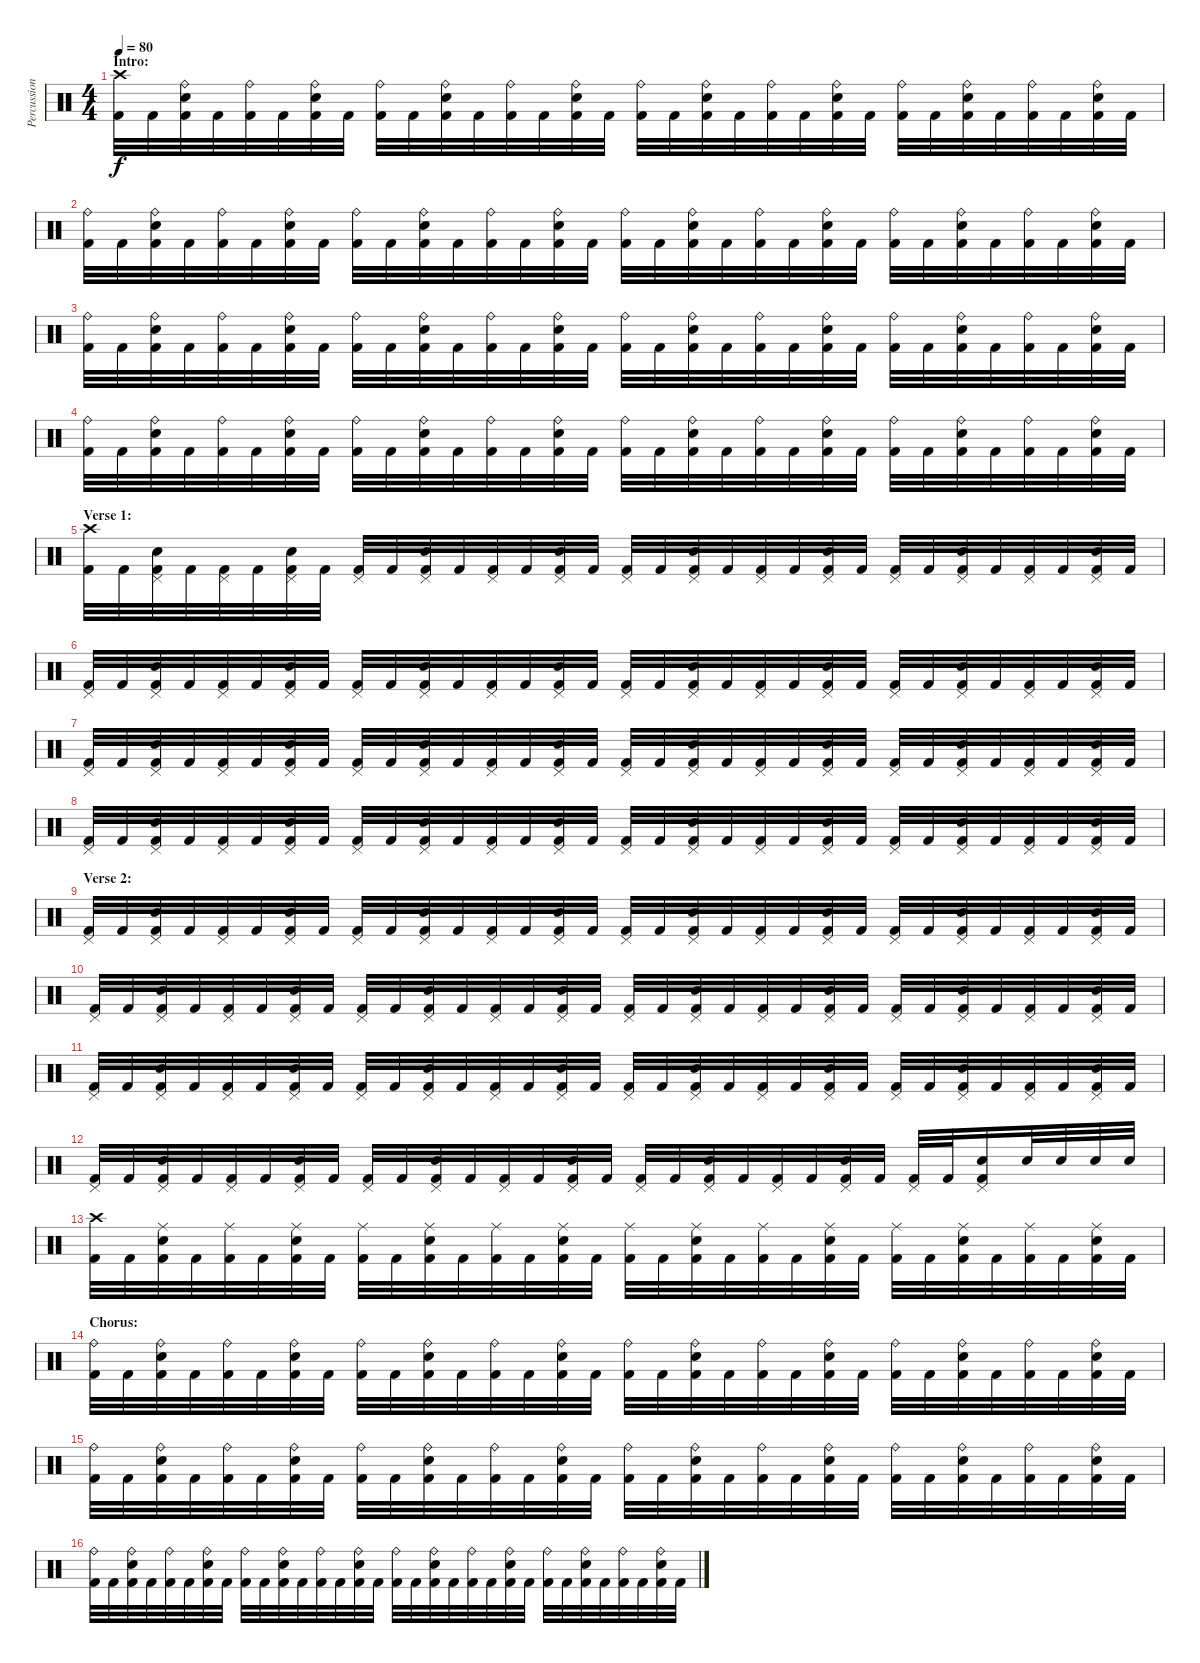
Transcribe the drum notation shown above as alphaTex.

\track ("Percussion" "Percussion") {instrument percussion}
\staff {score}
\articulation defaults
\ts (4 4)
\section ("" "Intro:")
\tempo 80
\clef neutral
\ks c
("Crash high (hit)" "Kick (hit) 2").32{dy f} "Kick (hit) 2".32 ("Ride (bell)" "Electric Snare (hit)" "Kick (hit) 2").32 "Kick (hit) 2".32 ("Ride (bell)" "Kick (hit) 2").32 "Kick (hit) 2".32 ("Ride (bell)" "Electric Snare (hit)" "Kick (hit) 2").32 "Kick (hit) 2".32 ("Ride (bell)" "Kick (hit) 2").32 "Kick (hit) 2".32 ("Ride (bell)" "Electric Snare (hit)" "Kick (hit) 2").32 "Kick (hit) 2".32 ("Ride (bell)" "Kick (hit) 2").32 "Kick (hit) 2".32 ("Ride (bell)" "Electric Snare (hit)" "Kick (hit) 2").32 "Kick (hit) 2".32 ("Ride (bell)" "Kick (hit) 2").32 "Kick (hit) 2".32 ("Ride (bell)" "Electric Snare (hit)" "Kick (hit) 2").32 "Kick (hit) 2".32 ("Ride (bell)" "Kick (hit) 2").32 "Kick (hit) 2".32 ("Ride (bell)" "Electric Snare (hit)" "Kick (hit) 2").32 "Kick (hit) 2".32 ("Ride (bell)" "Kick (hit) 2").32 "Kick (hit) 2".32 ("Ride (bell)" "Electric Snare (hit)" "Kick (hit) 2").32 "Kick (hit) 2".32 ("Ride (bell)" "Kick (hit) 2").32 "Kick (hit) 2".32 ("Ride (bell)" "Electric Snare (hit)" "Kick (hit) 2").32 "Kick (hit) 2".32 |
("Ride (bell)" "Kick (hit) 2").32 "Kick (hit) 2".32 ("Ride (bell)" "Electric Snare (hit)" "Kick (hit) 2").32 "Kick (hit) 2".32 ("Ride (bell)" "Kick (hit) 2").32 "Kick (hit) 2".32 ("Ride (bell)" "Electric Snare (hit)" "Kick (hit) 2").32 "Kick (hit) 2".32 ("Ride (bell)" "Kick (hit) 2").32 "Kick (hit) 2".32 ("Ride (bell)" "Electric Snare (hit)" "Kick (hit) 2").32 "Kick (hit) 2".32 ("Ride (bell)" "Kick (hit) 2").32 "Kick (hit) 2".32 ("Ride (bell)" "Electric Snare (hit)" "Kick (hit) 2").32 "Kick (hit) 2".32 ("Ride (bell)" "Kick (hit) 2").32 "Kick (hit) 2".32 ("Ride (bell)" "Electric Snare (hit)" "Kick (hit) 2").32 "Kick (hit) 2".32 ("Ride (bell)" "Kick (hit) 2").32 "Kick (hit) 2".32 ("Ride (bell)" "Electric Snare (hit)" "Kick (hit) 2").32 "Kick (hit) 2".32 ("Ride (bell)" "Kick (hit) 2").32 "Kick (hit) 2".32 ("Ride (bell)" "Electric Snare (hit)" "Kick (hit) 2").32 "Kick (hit) 2".32 ("Ride (bell)" "Kick (hit) 2").32 "Kick (hit) 2".32 ("Ride (bell)" "Electric Snare (hit)" "Kick (hit) 2").32 "Kick (hit) 2".32 |
("Ride (bell)" "Kick (hit) 2").32 "Kick (hit) 2".32 ("Ride (bell)" "Electric Snare (hit)" "Kick (hit) 2").32 "Kick (hit) 2".32 ("Ride (bell)" "Kick (hit) 2").32 "Kick (hit) 2".32 ("Ride (bell)" "Electric Snare (hit)" "Kick (hit) 2").32 "Kick (hit) 2".32 ("Ride (bell)" "Kick (hit) 2").32 "Kick (hit) 2".32 ("Ride (bell)" "Electric Snare (hit)" "Kick (hit) 2").32 "Kick (hit) 2".32 ("Ride (bell)" "Kick (hit) 2").32 "Kick (hit) 2".32 ("Ride (bell)" "Electric Snare (hit)" "Kick (hit) 2").32 "Kick (hit) 2".32 ("Ride (bell)" "Kick (hit) 2").32 "Kick (hit) 2".32 ("Ride (bell)" "Electric Snare (hit)" "Kick (hit) 2").32 "Kick (hit) 2".32 ("Ride (bell)" "Kick (hit) 2").32 "Kick (hit) 2".32 ("Ride (bell)" "Electric Snare (hit)" "Kick (hit) 2").32 "Kick (hit) 2".32 ("Ride (bell)" "Kick (hit) 2").32 "Kick (hit) 2".32 ("Ride (bell)" "Electric Snare (hit)" "Kick (hit) 2").32 "Kick (hit) 2".32 ("Ride (bell)" "Kick (hit) 2").32 "Kick (hit) 2".32 ("Ride (bell)" "Electric Snare (hit)" "Kick (hit) 2").32 "Kick (hit) 2".32 |
("Ride (bell)" "Kick (hit) 2").32 "Kick (hit) 2".32 ("Ride (bell)" "Electric Snare (hit)" "Kick (hit) 2").32 "Kick (hit) 2".32 ("Ride (bell)" "Kick (hit) 2").32 "Kick (hit) 2".32 ("Ride (bell)" "Electric Snare (hit)" "Kick (hit) 2").32 "Kick (hit) 2".32 ("Ride (bell)" "Kick (hit) 2").32 "Kick (hit) 2".32 ("Ride (bell)" "Electric Snare (hit)" "Kick (hit) 2").32 "Kick (hit) 2".32 ("Ride (bell)" "Kick (hit) 2").32 "Kick (hit) 2".32 ("Ride (bell)" "Electric Snare (hit)" "Kick (hit) 2").32 "Kick (hit) 2".32 ("Ride (bell)" "Kick (hit) 2").32 "Kick (hit) 2".32 ("Ride (bell)" "Electric Snare (hit)" "Kick (hit) 2").32 "Kick (hit) 2".32 ("Ride (bell)" "Kick (hit) 2").32 "Kick (hit) 2".32 ("Ride (bell)" "Electric Snare (hit)" "Kick (hit) 2").32 "Kick (hit) 2".32 ("Ride (bell)" "Kick (hit) 2").32 "Kick (hit) 2".32 ("Ride (bell)" "Electric Snare (hit)" "Kick (hit) 2").32 "Kick (hit) 2".32 ("Ride (bell)" "Kick (hit) 2").32 "Kick (hit) 2".32 ("Ride (bell)" "Electric Snare (hit)" "Kick (hit) 2").32 "Kick (hit) 2".32 |
\section ("" "Verse 1:")
("Crash high (hit)" "Kick (hit) 2").32 "Kick (hit) 2".32 ("Pedal Hi-Hat (hit)" "Electric Snare (hit)" "Kick (hit) 2").32 "Kick (hit) 2".32 ("Pedal Hi-Hat (hit)" "Kick (hit) 2").32 "Kick (hit) 2".32 ("Pedal Hi-Hat (hit)" "Electric Snare (hit)" "Kick (hit) 2").32 "Kick (hit) 2".32 ("Pedal Hi-Hat (hit)" "Kick (hit) 2").32 "Kick (hit) 2".32 ("Pedal Hi-Hat (hit)" "Electric Snare (hit)" "Kick (hit) 2").32 "Kick (hit) 2".32 ("Pedal Hi-Hat (hit)" "Kick (hit) 2").32 "Kick (hit) 2".32 ("Pedal Hi-Hat (hit)" "Electric Snare (hit)" "Kick (hit) 2").32 "Kick (hit) 2".32 ("Pedal Hi-Hat (hit)" "Kick (hit) 2").32 "Kick (hit) 2".32 ("Pedal Hi-Hat (hit)" "Electric Snare (hit)" "Kick (hit) 2").32 "Kick (hit) 2".32 ("Pedal Hi-Hat (hit)" "Kick (hit) 2").32 "Kick (hit) 2".32 ("Pedal Hi-Hat (hit)" "Electric Snare (hit)" "Kick (hit) 2").32 "Kick (hit) 2".32 ("Pedal Hi-Hat (hit)" "Kick (hit) 2").32 "Kick (hit) 2".32 ("Pedal Hi-Hat (hit)" "Electric Snare (hit)" "Kick (hit) 2").32 "Kick (hit) 2".32 ("Pedal Hi-Hat (hit)" "Kick (hit) 2").32 "Kick (hit) 2".32 ("Pedal Hi-Hat (hit)" "Electric Snare (hit)" "Kick (hit) 2").32 "Kick (hit) 2".32 |
("Pedal Hi-Hat (hit)" "Kick (hit) 2").32 "Kick (hit) 2".32 ("Pedal Hi-Hat (hit)" "Electric Snare (hit)" "Kick (hit) 2").32 "Kick (hit) 2".32 ("Pedal Hi-Hat (hit)" "Kick (hit) 2").32 "Kick (hit) 2".32 ("Pedal Hi-Hat (hit)" "Electric Snare (hit)" "Kick (hit) 2").32 "Kick (hit) 2".32 ("Pedal Hi-Hat (hit)" "Kick (hit) 2").32 "Kick (hit) 2".32 ("Pedal Hi-Hat (hit)" "Electric Snare (hit)" "Kick (hit) 2").32 "Kick (hit) 2".32 ("Pedal Hi-Hat (hit)" "Kick (hit) 2").32 "Kick (hit) 2".32 ("Pedal Hi-Hat (hit)" "Electric Snare (hit)" "Kick (hit) 2").32 "Kick (hit) 2".32 ("Pedal Hi-Hat (hit)" "Kick (hit) 2").32 "Kick (hit) 2".32 ("Pedal Hi-Hat (hit)" "Electric Snare (hit)" "Kick (hit) 2").32 "Kick (hit) 2".32 ("Pedal Hi-Hat (hit)" "Kick (hit) 2").32 "Kick (hit) 2".32 ("Pedal Hi-Hat (hit)" "Electric Snare (hit)" "Kick (hit) 2").32 "Kick (hit) 2".32 ("Pedal Hi-Hat (hit)" "Kick (hit) 2").32 "Kick (hit) 2".32 ("Pedal Hi-Hat (hit)" "Electric Snare (hit)" "Kick (hit) 2").32 "Kick (hit) 2".32 ("Pedal Hi-Hat (hit)" "Kick (hit) 2").32 "Kick (hit) 2".32 ("Pedal Hi-Hat (hit)" "Electric Snare (hit)" "Kick (hit) 2").32 "Kick (hit) 2".32 |
("Pedal Hi-Hat (hit)" "Kick (hit) 2").32 "Kick (hit) 2".32 ("Pedal Hi-Hat (hit)" "Electric Snare (hit)" "Kick (hit) 2").32 "Kick (hit) 2".32 ("Pedal Hi-Hat (hit)" "Kick (hit) 2").32 "Kick (hit) 2".32 ("Pedal Hi-Hat (hit)" "Electric Snare (hit)" "Kick (hit) 2").32 "Kick (hit) 2".32 ("Pedal Hi-Hat (hit)" "Kick (hit) 2").32 "Kick (hit) 2".32 ("Pedal Hi-Hat (hit)" "Electric Snare (hit)" "Kick (hit) 2").32 "Kick (hit) 2".32 ("Pedal Hi-Hat (hit)" "Kick (hit) 2").32 "Kick (hit) 2".32 ("Pedal Hi-Hat (hit)" "Electric Snare (hit)" "Kick (hit) 2").32 "Kick (hit) 2".32 ("Pedal Hi-Hat (hit)" "Kick (hit) 2").32 "Kick (hit) 2".32 ("Pedal Hi-Hat (hit)" "Electric Snare (hit)" "Kick (hit) 2").32 "Kick (hit) 2".32 ("Pedal Hi-Hat (hit)" "Kick (hit) 2").32 "Kick (hit) 2".32 ("Pedal Hi-Hat (hit)" "Electric Snare (hit)" "Kick (hit) 2").32 "Kick (hit) 2".32 ("Pedal Hi-Hat (hit)" "Kick (hit) 2").32 "Kick (hit) 2".32 ("Pedal Hi-Hat (hit)" "Electric Snare (hit)" "Kick (hit) 2").32 "Kick (hit) 2".32 ("Pedal Hi-Hat (hit)" "Kick (hit) 2").32 "Kick (hit) 2".32 ("Pedal Hi-Hat (hit)" "Electric Snare (hit)" "Kick (hit) 2").32 "Kick (hit) 2".32 |
("Pedal Hi-Hat (hit)" "Kick (hit) 2").32 "Kick (hit) 2".32 ("Pedal Hi-Hat (hit)" "Electric Snare (hit)" "Kick (hit) 2").32 "Kick (hit) 2".32 ("Pedal Hi-Hat (hit)" "Kick (hit) 2").32 "Kick (hit) 2".32 ("Pedal Hi-Hat (hit)" "Electric Snare (hit)" "Kick (hit) 2").32 "Kick (hit) 2".32 ("Pedal Hi-Hat (hit)" "Kick (hit) 2").32 "Kick (hit) 2".32 ("Pedal Hi-Hat (hit)" "Electric Snare (hit)" "Kick (hit) 2").32 "Kick (hit) 2".32 ("Pedal Hi-Hat (hit)" "Kick (hit) 2").32 "Kick (hit) 2".32 ("Pedal Hi-Hat (hit)" "Electric Snare (hit)" "Kick (hit) 2").32 "Kick (hit) 2".32 ("Pedal Hi-Hat (hit)" "Kick (hit) 2").32 "Kick (hit) 2".32 ("Pedal Hi-Hat (hit)" "Electric Snare (hit)" "Kick (hit) 2").32 "Kick (hit) 2".32 ("Pedal Hi-Hat (hit)" "Kick (hit) 2").32 "Kick (hit) 2".32 ("Pedal Hi-Hat (hit)" "Electric Snare (hit)" "Kick (hit) 2").32 "Kick (hit) 2".32 ("Pedal Hi-Hat (hit)" "Kick (hit) 2").32 "Kick (hit) 2".32 ("Pedal Hi-Hat (hit)" "Electric Snare (hit)" "Kick (hit) 2").32 "Kick (hit) 2".32 ("Pedal Hi-Hat (hit)" "Kick (hit) 2").32 "Kick (hit) 2".32 ("Pedal Hi-Hat (hit)" "Electric Snare (hit)" "Kick (hit) 2").32 "Kick (hit) 2".32 |
\section ("" "Verse 2:")
("Pedal Hi-Hat (hit)" "Kick (hit) 2").32 "Kick (hit) 2".32 ("Pedal Hi-Hat (hit)" "Electric Snare (hit)" "Kick (hit) 2").32 "Kick (hit) 2".32 ("Pedal Hi-Hat (hit)" "Kick (hit) 2").32 "Kick (hit) 2".32 ("Pedal Hi-Hat (hit)" "Electric Snare (hit)" "Kick (hit) 2").32 "Kick (hit) 2".32 ("Pedal Hi-Hat (hit)" "Kick (hit) 2").32 "Kick (hit) 2".32 ("Pedal Hi-Hat (hit)" "Electric Snare (hit)" "Kick (hit) 2").32 "Kick (hit) 2".32 ("Pedal Hi-Hat (hit)" "Kick (hit) 2").32 "Kick (hit) 2".32 ("Pedal Hi-Hat (hit)" "Electric Snare (hit)" "Kick (hit) 2").32 "Kick (hit) 2".32 ("Pedal Hi-Hat (hit)" "Kick (hit) 2").32 "Kick (hit) 2".32 ("Pedal Hi-Hat (hit)" "Electric Snare (hit)" "Kick (hit) 2").32 "Kick (hit) 2".32 ("Pedal Hi-Hat (hit)" "Kick (hit) 2").32 "Kick (hit) 2".32 ("Pedal Hi-Hat (hit)" "Electric Snare (hit)" "Kick (hit) 2").32 "Kick (hit) 2".32 ("Pedal Hi-Hat (hit)" "Kick (hit) 2").32 "Kick (hit) 2".32 ("Pedal Hi-Hat (hit)" "Electric Snare (hit)" "Kick (hit) 2").32 "Kick (hit) 2".32 ("Pedal Hi-Hat (hit)" "Kick (hit) 2").32 "Kick (hit) 2".32 ("Pedal Hi-Hat (hit)" "Electric Snare (hit)" "Kick (hit) 2").32 "Kick (hit) 2".32 |
("Pedal Hi-Hat (hit)" "Kick (hit) 2").32 "Kick (hit) 2".32 ("Pedal Hi-Hat (hit)" "Electric Snare (hit)" "Kick (hit) 2").32 "Kick (hit) 2".32 ("Pedal Hi-Hat (hit)" "Kick (hit) 2").32 "Kick (hit) 2".32 ("Pedal Hi-Hat (hit)" "Electric Snare (hit)" "Kick (hit) 2").32 "Kick (hit) 2".32 ("Pedal Hi-Hat (hit)" "Kick (hit) 2").32 "Kick (hit) 2".32 ("Pedal Hi-Hat (hit)" "Electric Snare (hit)" "Kick (hit) 2").32 "Kick (hit) 2".32 ("Pedal Hi-Hat (hit)" "Kick (hit) 2").32 "Kick (hit) 2".32 ("Pedal Hi-Hat (hit)" "Electric Snare (hit)" "Kick (hit) 2").32 "Kick (hit) 2".32 ("Pedal Hi-Hat (hit)" "Kick (hit) 2").32 "Kick (hit) 2".32 ("Pedal Hi-Hat (hit)" "Electric Snare (hit)" "Kick (hit) 2").32 "Kick (hit) 2".32 ("Pedal Hi-Hat (hit)" "Kick (hit) 2").32 "Kick (hit) 2".32 ("Pedal Hi-Hat (hit)" "Electric Snare (hit)" "Kick (hit) 2").32 "Kick (hit) 2".32 ("Pedal Hi-Hat (hit)" "Kick (hit) 2").32 "Kick (hit) 2".32 ("Pedal Hi-Hat (hit)" "Electric Snare (hit)" "Kick (hit) 2").32 "Kick (hit) 2".32 ("Pedal Hi-Hat (hit)" "Kick (hit) 2").32 "Kick (hit) 2".32 ("Pedal Hi-Hat (hit)" "Electric Snare (hit)" "Kick (hit) 2").32 "Kick (hit) 2".32 |
("Pedal Hi-Hat (hit)" "Kick (hit) 2").32 "Kick (hit) 2".32 ("Pedal Hi-Hat (hit)" "Electric Snare (hit)" "Kick (hit) 2").32 "Kick (hit) 2".32 ("Pedal Hi-Hat (hit)" "Kick (hit) 2").32 "Kick (hit) 2".32 ("Pedal Hi-Hat (hit)" "Electric Snare (hit)" "Kick (hit) 2").32 "Kick (hit) 2".32 ("Pedal Hi-Hat (hit)" "Kick (hit) 2").32 "Kick (hit) 2".32 ("Pedal Hi-Hat (hit)" "Electric Snare (hit)" "Kick (hit) 2").32 "Kick (hit) 2".32 ("Pedal Hi-Hat (hit)" "Kick (hit) 2").32 "Kick (hit) 2".32 ("Pedal Hi-Hat (hit)" "Electric Snare (hit)" "Kick (hit) 2").32 "Kick (hit) 2".32 ("Pedal Hi-Hat (hit)" "Kick (hit) 2").32 "Kick (hit) 2".32 ("Pedal Hi-Hat (hit)" "Electric Snare (hit)" "Kick (hit) 2").32 "Kick (hit) 2".32 ("Pedal Hi-Hat (hit)" "Kick (hit) 2").32 "Kick (hit) 2".32 ("Pedal Hi-Hat (hit)" "Electric Snare (hit)" "Kick (hit) 2").32 "Kick (hit) 2".32 ("Pedal Hi-Hat (hit)" "Kick (hit) 2").32 "Kick (hit) 2".32 ("Pedal Hi-Hat (hit)" "Electric Snare (hit)" "Kick (hit) 2").32 "Kick (hit) 2".32 ("Pedal Hi-Hat (hit)" "Kick (hit) 2").32 "Kick (hit) 2".32 ("Pedal Hi-Hat (hit)" "Electric Snare (hit)" "Kick (hit) 2").32 "Kick (hit) 2".32 |
("Pedal Hi-Hat (hit)" "Kick (hit) 2").32 "Kick (hit) 2".32 ("Pedal Hi-Hat (hit)" "Electric Snare (hit)" "Kick (hit) 2").32 "Kick (hit) 2".32 ("Pedal Hi-Hat (hit)" "Kick (hit) 2").32 "Kick (hit) 2".32 ("Pedal Hi-Hat (hit)" "Electric Snare (hit)" "Kick (hit) 2").32 "Kick (hit) 2".32 ("Pedal Hi-Hat (hit)" "Kick (hit) 2").32 "Kick (hit) 2".32 ("Pedal Hi-Hat (hit)" "Electric Snare (hit)" "Kick (hit) 2").32 "Kick (hit) 2".32 ("Pedal Hi-Hat (hit)" "Kick (hit) 2").32 "Kick (hit) 2".32 ("Pedal Hi-Hat (hit)" "Electric Snare (hit)" "Kick (hit) 2").32 "Kick (hit) 2".32 ("Pedal Hi-Hat (hit)" "Kick (hit) 2").32 "Kick (hit) 2".32 ("Pedal Hi-Hat (hit)" "Electric Snare (hit)" "Kick (hit) 2").32 "Kick (hit) 2".32 ("Pedal Hi-Hat (hit)" "Kick (hit) 2").32 "Kick (hit) 2".32 ("Pedal Hi-Hat (hit)" "Electric Snare (hit)" "Kick (hit) 2").32 "Kick (hit) 2".32 ("Pedal Hi-Hat (hit)" "Kick (hit) 2").32 "Kick (hit) 2".32 ("Pedal Hi-Hat (hit)" "Electric Snare (hit)" "Kick (hit) 2").16 "Electric Snare (hit)".32 "Electric Snare (hit)".32 "Electric Snare (hit)".32 "Electric Snare (hit)".32 |
("Crash high (hit)" "Kick (hit) 2").32 "Kick (hit) 2".32 ("Ride (middle)" "Electric Snare (hit)" "Kick (hit) 2").32 "Kick (hit) 2".32 ("Ride (middle)" "Kick (hit) 2").32 "Kick (hit) 2".32 ("Ride (middle)" "Electric Snare (hit)" "Kick (hit) 2").32 "Kick (hit) 2".32 ("Ride (middle)" "Kick (hit) 2").32 "Kick (hit) 2".32 ("Ride (middle)" "Electric Snare (hit)" "Kick (hit) 2").32 "Kick (hit) 2".32 ("Ride (middle)" "Kick (hit) 2").32 "Kick (hit) 2".32 ("Ride (middle)" "Electric Snare (hit)" "Kick (hit) 2").32 "Kick (hit) 2".32 ("Ride (middle)" "Kick (hit) 2").32 "Kick (hit) 2".32 ("Ride (middle)" "Electric Snare (hit)" "Kick (hit) 2").32 "Kick (hit) 2".32 ("Ride (middle)" "Kick (hit) 2").32 "Kick (hit) 2".32 ("Ride (middle)" "Electric Snare (hit)" "Kick (hit) 2").32 "Kick (hit) 2".32 ("Ride (middle)" "Kick (hit) 2").32 "Kick (hit) 2".32 ("Ride (middle)" "Electric Snare (hit)" "Kick (hit) 2").32 "Kick (hit) 2".32 ("Ride (middle)" "Kick (hit) 2").32 "Kick (hit) 2".32 ("Ride (middle)" "Electric Snare (hit)" "Kick (hit) 2").32 "Kick (hit) 2".32 |
\section ("" "Chorus:")
("Ride (bell)" "Kick (hit) 2").32 "Kick (hit) 2".32 ("Ride (bell)" "Electric Snare (hit)" "Kick (hit) 2").32 "Kick (hit) 2".32 ("Ride (bell)" "Kick (hit) 2").32 "Kick (hit) 2".32 ("Ride (bell)" "Electric Snare (hit)" "Kick (hit) 2").32 "Kick (hit) 2".32 ("Ride (bell)" "Kick (hit) 2").32 "Kick (hit) 2".32 ("Ride (bell)" "Electric Snare (hit)" "Kick (hit) 2").32 "Kick (hit) 2".32 ("Ride (bell)" "Kick (hit) 2").32 "Kick (hit) 2".32 ("Ride (bell)" "Electric Snare (hit)" "Kick (hit) 2").32 "Kick (hit) 2".32 ("Ride (bell)" "Kick (hit) 2").32 "Kick (hit) 2".32 ("Ride (bell)" "Electric Snare (hit)" "Kick (hit) 2").32 "Kick (hit) 2".32 ("Ride (bell)" "Kick (hit) 2").32 "Kick (hit) 2".32 ("Ride (bell)" "Electric Snare (hit)" "Kick (hit) 2").32 "Kick (hit) 2".32 ("Ride (bell)" "Kick (hit) 2").32 "Kick (hit) 2".32 ("Ride (bell)" "Electric Snare (hit)" "Kick (hit) 2").32 "Kick (hit) 2".32 ("Ride (bell)" "Kick (hit) 2").32 "Kick (hit) 2".32 ("Ride (bell)" "Electric Snare (hit)" "Kick (hit) 2").32 "Kick (hit) 2".32 |
("Ride (bell)" "Kick (hit) 2").32 "Kick (hit) 2".32 ("Ride (bell)" "Electric Snare (hit)" "Kick (hit) 2").32 "Kick (hit) 2".32 ("Ride (bell)" "Kick (hit) 2").32 "Kick (hit) 2".32 ("Ride (bell)" "Electric Snare (hit)" "Kick (hit) 2").32 "Kick (hit) 2".32 ("Ride (bell)" "Kick (hit) 2").32 "Kick (hit) 2".32 ("Ride (bell)" "Electric Snare (hit)" "Kick (hit) 2").32 "Kick (hit) 2".32 ("Ride (bell)" "Kick (hit) 2").32 "Kick (hit) 2".32 ("Ride (bell)" "Electric Snare (hit)" "Kick (hit) 2").32 "Kick (hit) 2".32 ("Ride (bell)" "Kick (hit) 2").32 "Kick (hit) 2".32 ("Ride (bell)" "Electric Snare (hit)" "Kick (hit) 2").32 "Kick (hit) 2".32 ("Ride (bell)" "Kick (hit) 2").32 "Kick (hit) 2".32 ("Ride (bell)" "Electric Snare (hit)" "Kick (hit) 2").32 "Kick (hit) 2".32 ("Ride (bell)" "Kick (hit) 2").32 "Kick (hit) 2".32 ("Ride (bell)" "Electric Snare (hit)" "Kick (hit) 2").32 "Kick (hit) 2".32 ("Ride (bell)" "Kick (hit) 2").32 "Kick (hit) 2".32 ("Ride (bell)" "Electric Snare (hit)" "Kick (hit) 2").32 "Kick (hit) 2".32 |
("Ride (bell)" "Kick (hit) 2").32 "Kick (hit) 2".32 ("Ride (bell)" "Electric Snare (hit)" "Kick (hit) 2").32 "Kick (hit) 2".32 ("Ride (bell)" "Kick (hit) 2").32 "Kick (hit) 2".32 ("Ride (bell)" "Electric Snare (hit)" "Kick (hit) 2").32 "Kick (hit) 2".32 ("Ride (bell)" "Kick (hit) 2").32 "Kick (hit) 2".32 ("Ride (bell)" "Electric Snare (hit)" "Kick (hit) 2").32 "Kick (hit) 2".32 ("Ride (bell)" "Kick (hit) 2").32 "Kick (hit) 2".32 ("Ride (bell)" "Electric Snare (hit)" "Kick (hit) 2").32 "Kick (hit) 2".32 ("Ride (bell)" "Kick (hit) 2").32 "Kick (hit) 2".32 ("Ride (bell)" "Electric Snare (hit)" "Kick (hit) 2").32 "Kick (hit) 2".32 ("Ride (bell)" "Kick (hit) 2").32 "Kick (hit) 2".32 ("Ride (bell)" "Electric Snare (hit)" "Kick (hit) 2").32 "Kick (hit) 2".32 ("Ride (bell)" "Kick (hit) 2").32 "Kick (hit) 2".32 ("Ride (bell)" "Electric Snare (hit)" "Kick (hit) 2").32 "Kick (hit) 2".32 ("Ride (bell)" "Kick (hit) 2").32 "Kick (hit) 2".32 ("Ride (bell)" "Electric Snare (hit)" "Kick (hit) 2").32 "Kick (hit) 2".32
